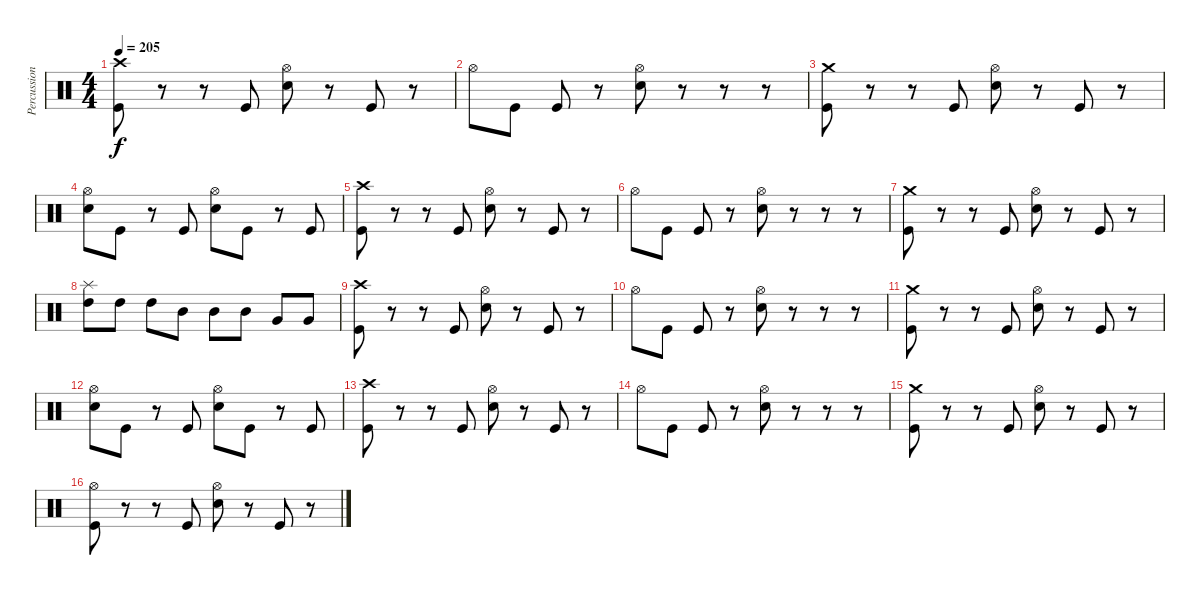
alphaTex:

\track ("Percussion" "Percussion") {instrument percussion}
\staff {score}
\articulation defaults
\ts (4 4)
\tempo 205
\clef neutral
\ks c
("Kick (hit)" "Crash high (hit)").8{dy f} r.8 r.8 "Kick (hit)".8 ("Snare (hit) 2" "Hi-Hat (open)").8 r.8 "Kick (hit)".8 r.8 |
"Hi-Hat (open)".8 "Kick (hit)".8 "Kick (hit)".8 r.8 ("Snare (hit) 2" "Hi-Hat (open)").8 r.8 r.8 r.8 |
("Kick (hit)" "Crash medium (hit)").8 r.8 r.8 "Kick (hit)".8 ("Snare (hit) 2" "Hi-Hat (open)").8 r.8 "Kick (hit)".8 r.8 |
("Snare (hit) 2" "Hi-Hat (open)").8 "Kick (hit)".8 r.8 "Kick (hit)".8 ("Snare (hit) 2" "Hi-Hat (open)").8 "Kick (hit)".8 r.8 "Kick (hit)".8 |
("Kick (hit)" "Crash high (hit)").8 r.8 r.8 "Kick (hit)".8 ("Snare (hit) 2" "Hi-Hat (open)").8 r.8 "Kick (hit)".8 r.8 |
"Hi-Hat (open)".8 "Kick (hit)".8 "Kick (hit)".8 r.8 ("Snare (hit) 2" "Hi-Hat (open)").8 r.8 r.8 r.8 |
("Kick (hit)" "Crash medium (hit)").8 r.8 r.8 "Kick (hit)".8 ("Snare (hit) 2" "Hi-Hat (open)").8 r.8 "Kick (hit)".8 r.8 |
("High Tom (hit)" "Splash (hit)").8 "High Tom (hit)".8 "High Tom (hit)".8 "Mid Tom (hit)".8 "Mid Tom (hit)".8 "Mid Tom (hit)".8 "Very Low Tom (hit)".8 "Very Low Tom (hit)".8 |
("Kick (hit)" "Crash high (hit)").8 r.8 r.8 "Kick (hit)".8 ("Snare (hit) 2" "Hi-Hat (open)").8 r.8 "Kick (hit)".8 r.8 |
"Hi-Hat (open)".8 "Kick (hit)".8 "Kick (hit)".8 r.8 ("Snare (hit) 2" "Hi-Hat (open)").8 r.8 r.8 r.8 |
("Kick (hit)" "Crash medium (hit)").8 r.8 r.8 "Kick (hit)".8 ("Snare (hit) 2" "Hi-Hat (open)").8 r.8 "Kick (hit)".8 r.8 |
("Snare (hit) 2" "Hi-Hat (open)").8 "Kick (hit)".8 r.8 "Kick (hit)".8 ("Snare (hit) 2" "Hi-Hat (open)").8 "Kick (hit)".8 r.8 "Kick (hit)".8 |
("Kick (hit)" "Crash high (hit)").8 r.8 r.8 "Kick (hit)".8 ("Snare (hit) 2" "Hi-Hat (open)").8 r.8 "Kick (hit)".8 r.8 |
"Hi-Hat (open)".8 "Kick (hit)".8 "Kick (hit)".8 r.8 ("Snare (hit) 2" "Hi-Hat (open)").8 r.8 r.8 r.8 |
("Kick (hit)" "Crash medium (hit)").8 r.8 r.8 "Kick (hit)".8 ("Snare (hit) 2" "Hi-Hat (open)").8 r.8 "Kick (hit)".8 r.8 |
("Kick (hit)" "Hi-Hat (open)").8 r.8 r.8 "Kick (hit)".8 ("Snare (hit) 2" "Hi-Hat (open)").8 r.8 "Kick (hit)".8 r.8
